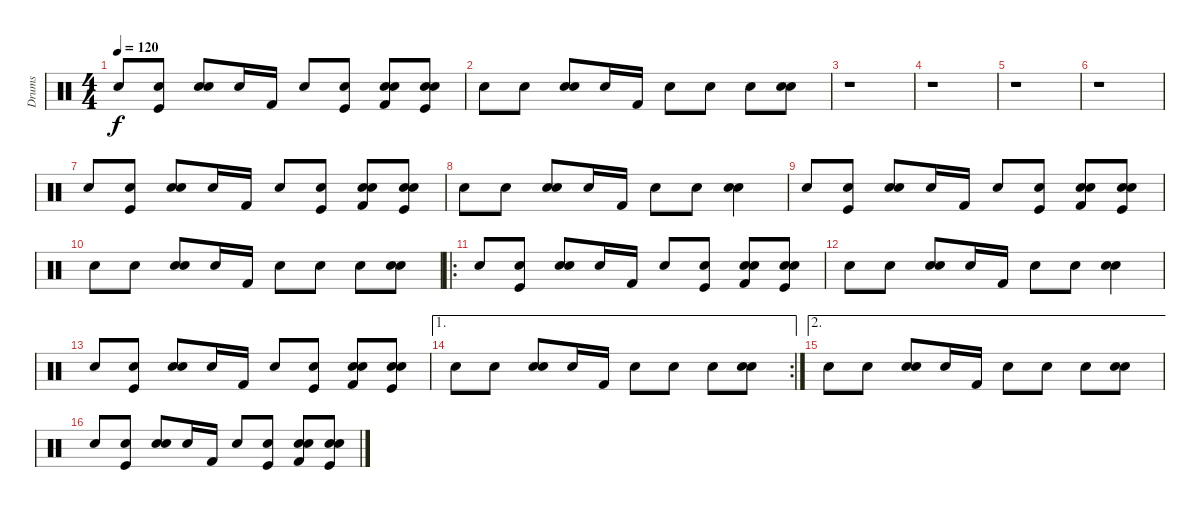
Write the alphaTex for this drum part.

\track ("Drums" "Drums") {instrument percussion}
\staff {score}
\articulation defaults
\ts (4 4)
\tempo 120
\clef neutral
\ks c "Snare (hit) 2".8{dy f}
("Snare (hit) 2" "Kick (hit)").8 ("Electric Snare (hit)" "Snare (hit) 2").8 "Snare (hit) 2".16 "Kick (hit) 2".16 "Snare (hit) 2".8 ("Snare (hit) 2" "Kick (hit)").8 ("Electric Snare (hit)" "Snare (hit) 2" "Kick (hit) 2").8 ("Electric Snare (hit)" "Snare (hit) 2" "Kick (hit)").8 |
"Snare (hit) 2".8 "Snare (hit) 2".8 ("Electric Snare (hit)" "Snare (hit) 2").8 "Snare (hit) 2".16 "Kick (hit) 2".16 "Snare (hit) 2".8 "Snare (hit) 2".8 "Snare (hit) 2".8 ("Electric Snare (hit)" "Snare (hit) 2").8 |
r.1 |
r.1 |
r.1 |
r.1 |
"Snare (hit) 2".8 ("Snare (hit) 2" "Kick (hit)").8 ("Electric Snare (hit)" "Snare (hit) 2").8 "Snare (hit) 2".16 "Kick (hit) 2".16 "Snare (hit) 2".8 ("Snare (hit) 2" "Kick (hit)").8 ("Electric Snare (hit)" "Snare (hit) 2" "Kick (hit) 2").8 ("Electric Snare (hit)" "Snare (hit) 2" "Kick (hit)").8 |
"Snare (hit) 2".8 "Snare (hit) 2".8 ("Electric Snare (hit)" "Snare (hit) 2").8 "Snare (hit) 2".16 "Kick (hit) 2".16 "Snare (hit) 2".8 "Snare (hit) 2".8 ("Electric Snare (hit)" "Snare (hit) 2").4 |
"Snare (hit) 2".8 ("Snare (hit) 2" "Kick (hit)").8 ("Electric Snare (hit)" "Snare (hit) 2").8 "Snare (hit) 2".16 "Kick (hit) 2".16 "Snare (hit) 2".8 ("Snare (hit) 2" "Kick (hit)").8 ("Electric Snare (hit)" "Snare (hit) 2" "Kick (hit) 2").8 ("Electric Snare (hit)" "Snare (hit) 2" "Kick (hit)").8 |
"Snare (hit) 2".8 "Snare (hit) 2".8 ("Electric Snare (hit)" "Snare (hit) 2").8 "Snare (hit) 2".16 "Kick (hit) 2".16 "Snare (hit) 2".8 "Snare (hit) 2".8 "Snare (hit) 2".8 ("Electric Snare (hit)" "Snare (hit) 2").8 |
\ro "Snare (hit) 2".8
("Snare (hit) 2" "Kick (hit)").8 ("Electric Snare (hit)" "Snare (hit) 2").8 "Snare (hit) 2".16 "Kick (hit) 2".16 "Snare (hit) 2".8 ("Snare (hit) 2" "Kick (hit)").8 ("Electric Snare (hit)" "Snare (hit) 2" "Kick (hit) 2").8 ("Electric Snare (hit)" "Snare (hit) 2" "Kick (hit)").8 |
"Snare (hit) 2".8 "Snare (hit) 2".8 ("Electric Snare (hit)" "Snare (hit) 2").8 "Snare (hit) 2".16 "Kick (hit) 2".16 "Snare (hit) 2".8 "Snare (hit) 2".8 ("Electric Snare (hit)" "Snare (hit) 2").4 |
"Snare (hit) 2".8 ("Snare (hit) 2" "Kick (hit)").8 ("Electric Snare (hit)" "Snare (hit) 2").8 "Snare (hit) 2".16 "Kick (hit) 2".16 "Snare (hit) 2".8 ("Snare (hit) 2" "Kick (hit)").8 ("Electric Snare (hit)" "Snare (hit) 2" "Kick (hit) 2").8 ("Electric Snare (hit)" "Snare (hit) 2" "Kick (hit)").8 |
\ae 1
\rc 2 "Snare (hit) 2".8 "Snare (hit) 2".8
("Electric Snare (hit)" "Snare (hit) 2").8 "Snare (hit) 2".16 "Kick (hit) 2".16 "Snare (hit) 2".8 "Snare (hit) 2".8 "Snare (hit) 2".8 ("Electric Snare (hit)" "Snare (hit) 2").8 |
\ae 2 "Snare (hit) 2".8 "Snare (hit) 2".8
("Electric Snare (hit)" "Snare (hit) 2").8 "Snare (hit) 2".16 "Kick (hit) 2".16 "Snare (hit) 2".8 "Snare (hit) 2".8 "Snare (hit) 2".8 ("Electric Snare (hit)" "Snare (hit) 2").8 |
"Snare (hit) 2".8 ("Snare (hit) 2" "Kick (hit)").8 ("Electric Snare (hit)" "Snare (hit) 2").8 "Snare (hit) 2".16 "Kick (hit) 2".16 "Snare (hit) 2".8 ("Snare (hit) 2" "Kick (hit)").8 ("Electric Snare (hit)" "Snare (hit) 2" "Kick (hit) 2").8 ("Electric Snare (hit)" "Snare (hit) 2" "Kick (hit)").8
